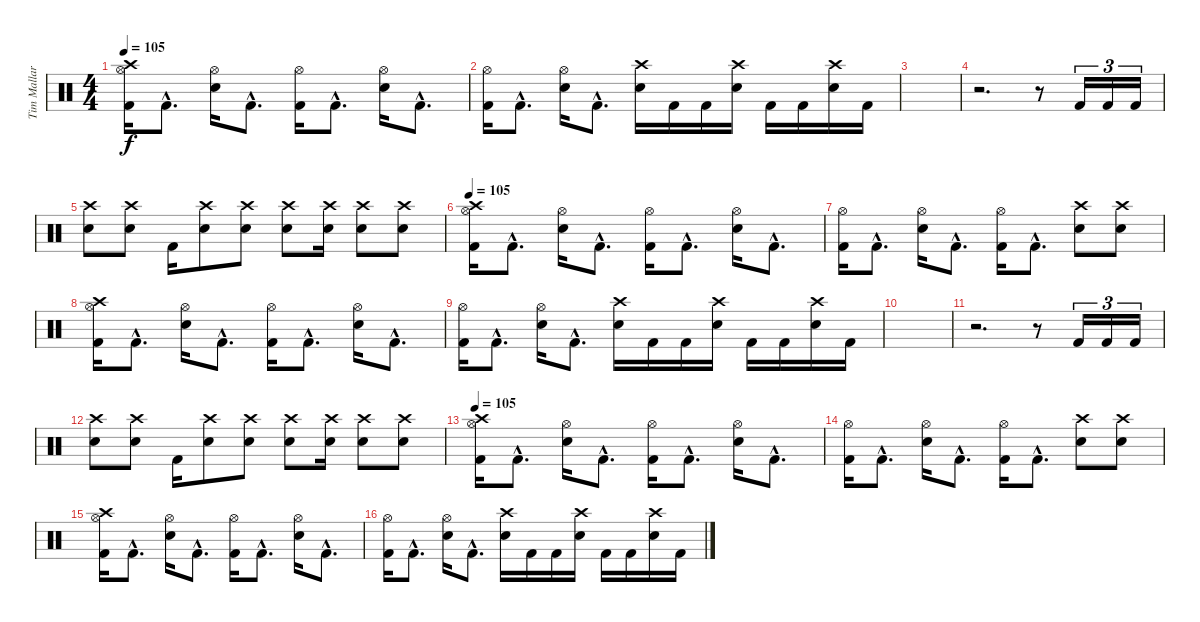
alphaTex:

\track ("Tim Mallare" "Tim Mallar") {instrument percussion}
\staff {score}
\articulation defaults
\ts (4 4)
\tempo 105
\clef neutral
\ks c
("Crash high (hit)" "Hi-Hat (open)" "Kick (hit) 2").16{dy f} "Kick (hit) 2"{hac}.8{d} ("Hi-Hat (open)" "Electric Snare (hit)").16 "Kick (hit) 2"{hac}.8{d} ("Hi-Hat (open)" "Kick (hit) 2").16 "Kick (hit) 2"{hac}.8{d} ("Hi-Hat (open)" "Electric Snare (hit)").16 "Kick (hit) 2"{hac}.8{d} |
("Hi-Hat (open)" "Kick (hit) 2").16 "Kick (hit) 2"{hac}.8{d} ("Hi-Hat (open)" "Electric Snare (hit)").16 "Kick (hit) 2"{hac}.8{d} ("Crash high (hit)" "Electric Snare (hit)").16 "Kick (hit) 2".16 "Kick (hit) 2".16 ("Crash high (hit)" "Electric Snare (hit)").16 "Kick (hit) 2".16 "Kick (hit) 2".16 ("Crash high (hit)" "Electric Snare (hit)").16 "Kick (hit) 2".16 |
|
r.2{d} r.8 "Kick (hit) 2".16{tu (3 2)} "Kick (hit) 2".16{tu (3 2)} "Kick (hit) 2".16{tu (3 2)} |
("Crash high (hit)" "Electric Snare (hit)").8 ("Crash high (hit)" "Electric Snare (hit)").8 "Kick (hit) 2".16 ("Crash high (hit)" "Electric Snare (hit)").8 ("Crash high (hit)" "Electric Snare (hit)").8 ("Crash high (hit)" "Electric Snare (hit)").8 ("Crash high (hit)" "Electric Snare (hit)").16 ("Crash high (hit)" "Electric Snare (hit)").8 ("Crash high (hit)" "Electric Snare (hit)").8 |
\tempo 105
("Crash high (hit)" "Hi-Hat (open)" "Kick (hit) 2").16 "Kick (hit) 2"{hac}.8{d} ("Hi-Hat (open)" "Electric Snare (hit)").16 "Kick (hit) 2"{hac}.8{d} ("Hi-Hat (open)" "Kick (hit) 2").16 "Kick (hit) 2"{hac}.8{d} ("Hi-Hat (open)" "Electric Snare (hit)").16 "Kick (hit) 2"{hac}.8{d} |
("Hi-Hat (open)" "Kick (hit) 2").16 "Kick (hit) 2"{hac}.8{d} ("Hi-Hat (open)" "Electric Snare (hit)").16 "Kick (hit) 2"{hac}.8{d} ("Hi-Hat (open)" "Kick (hit) 2").16 "Kick (hit) 2"{hac}.8{d} ("Crash high (hit)" "Electric Snare (hit)").8 ("Crash high (hit)" "Electric Snare (hit)").8 |
("Crash high (hit)" "Hi-Hat (open)" "Kick (hit) 2").16 "Kick (hit) 2"{hac}.8{d} ("Hi-Hat (open)" "Electric Snare (hit)").16 "Kick (hit) 2"{hac}.8{d} ("Hi-Hat (open)" "Kick (hit) 2").16 "Kick (hit) 2"{hac}.8{d} ("Hi-Hat (open)" "Electric Snare (hit)").16 "Kick (hit) 2"{hac}.8{d} |
("Hi-Hat (open)" "Kick (hit) 2").16 "Kick (hit) 2"{hac}.8{d} ("Hi-Hat (open)" "Electric Snare (hit)").16 "Kick (hit) 2"{hac}.8{d} ("Crash high (hit)" "Electric Snare (hit)").16 "Kick (hit) 2".16 "Kick (hit) 2".16 ("Crash high (hit)" "Electric Snare (hit)").16 "Kick (hit) 2".16 "Kick (hit) 2".16 ("Crash high (hit)" "Electric Snare (hit)").16 "Kick (hit) 2".16 |
|
r.2{d} r.8 "Kick (hit) 2".16{tu (3 2)} "Kick (hit) 2".16{tu (3 2)} "Kick (hit) 2".16{tu (3 2)} |
("Crash high (hit)" "Electric Snare (hit)").8 ("Crash high (hit)" "Electric Snare (hit)").8 "Kick (hit) 2".16 ("Crash high (hit)" "Electric Snare (hit)").8 ("Crash high (hit)" "Electric Snare (hit)").8 ("Crash high (hit)" "Electric Snare (hit)").8 ("Crash high (hit)" "Electric Snare (hit)").16 ("Crash high (hit)" "Electric Snare (hit)").8 ("Crash high (hit)" "Electric Snare (hit)").8 |
\tempo 105
("Crash high (hit)" "Hi-Hat (open)" "Kick (hit) 2").16 "Kick (hit) 2"{hac}.8{d} ("Hi-Hat (open)" "Electric Snare (hit)").16 "Kick (hit) 2"{hac}.8{d} ("Hi-Hat (open)" "Kick (hit) 2").16 "Kick (hit) 2"{hac}.8{d} ("Hi-Hat (open)" "Electric Snare (hit)").16 "Kick (hit) 2"{hac}.8{d} |
("Hi-Hat (open)" "Kick (hit) 2").16 "Kick (hit) 2"{hac}.8{d} ("Hi-Hat (open)" "Electric Snare (hit)").16 "Kick (hit) 2"{hac}.8{d} ("Hi-Hat (open)" "Kick (hit) 2").16 "Kick (hit) 2"{hac}.8{d} ("Crash high (hit)" "Electric Snare (hit)").8 ("Crash high (hit)" "Electric Snare (hit)").8 |
("Crash high (hit)" "Hi-Hat (open)" "Kick (hit) 2").16 "Kick (hit) 2"{hac}.8{d} ("Hi-Hat (open)" "Electric Snare (hit)").16 "Kick (hit) 2"{hac}.8{d} ("Hi-Hat (open)" "Kick (hit) 2").16 "Kick (hit) 2"{hac}.8{d} ("Hi-Hat (open)" "Electric Snare (hit)").16 "Kick (hit) 2"{hac}.8{d} |
("Hi-Hat (open)" "Kick (hit) 2").16 "Kick (hit) 2"{hac}.8{d} ("Hi-Hat (open)" "Electric Snare (hit)").16 "Kick (hit) 2"{hac}.8{d} ("Crash high (hit)" "Electric Snare (hit)").16 "Kick (hit) 2".16 "Kick (hit) 2".16 ("Crash high (hit)" "Electric Snare (hit)").16 "Kick (hit) 2".16 "Kick (hit) 2".16 ("Crash high (hit)" "Electric Snare (hit)").16 "Kick (hit) 2".16
